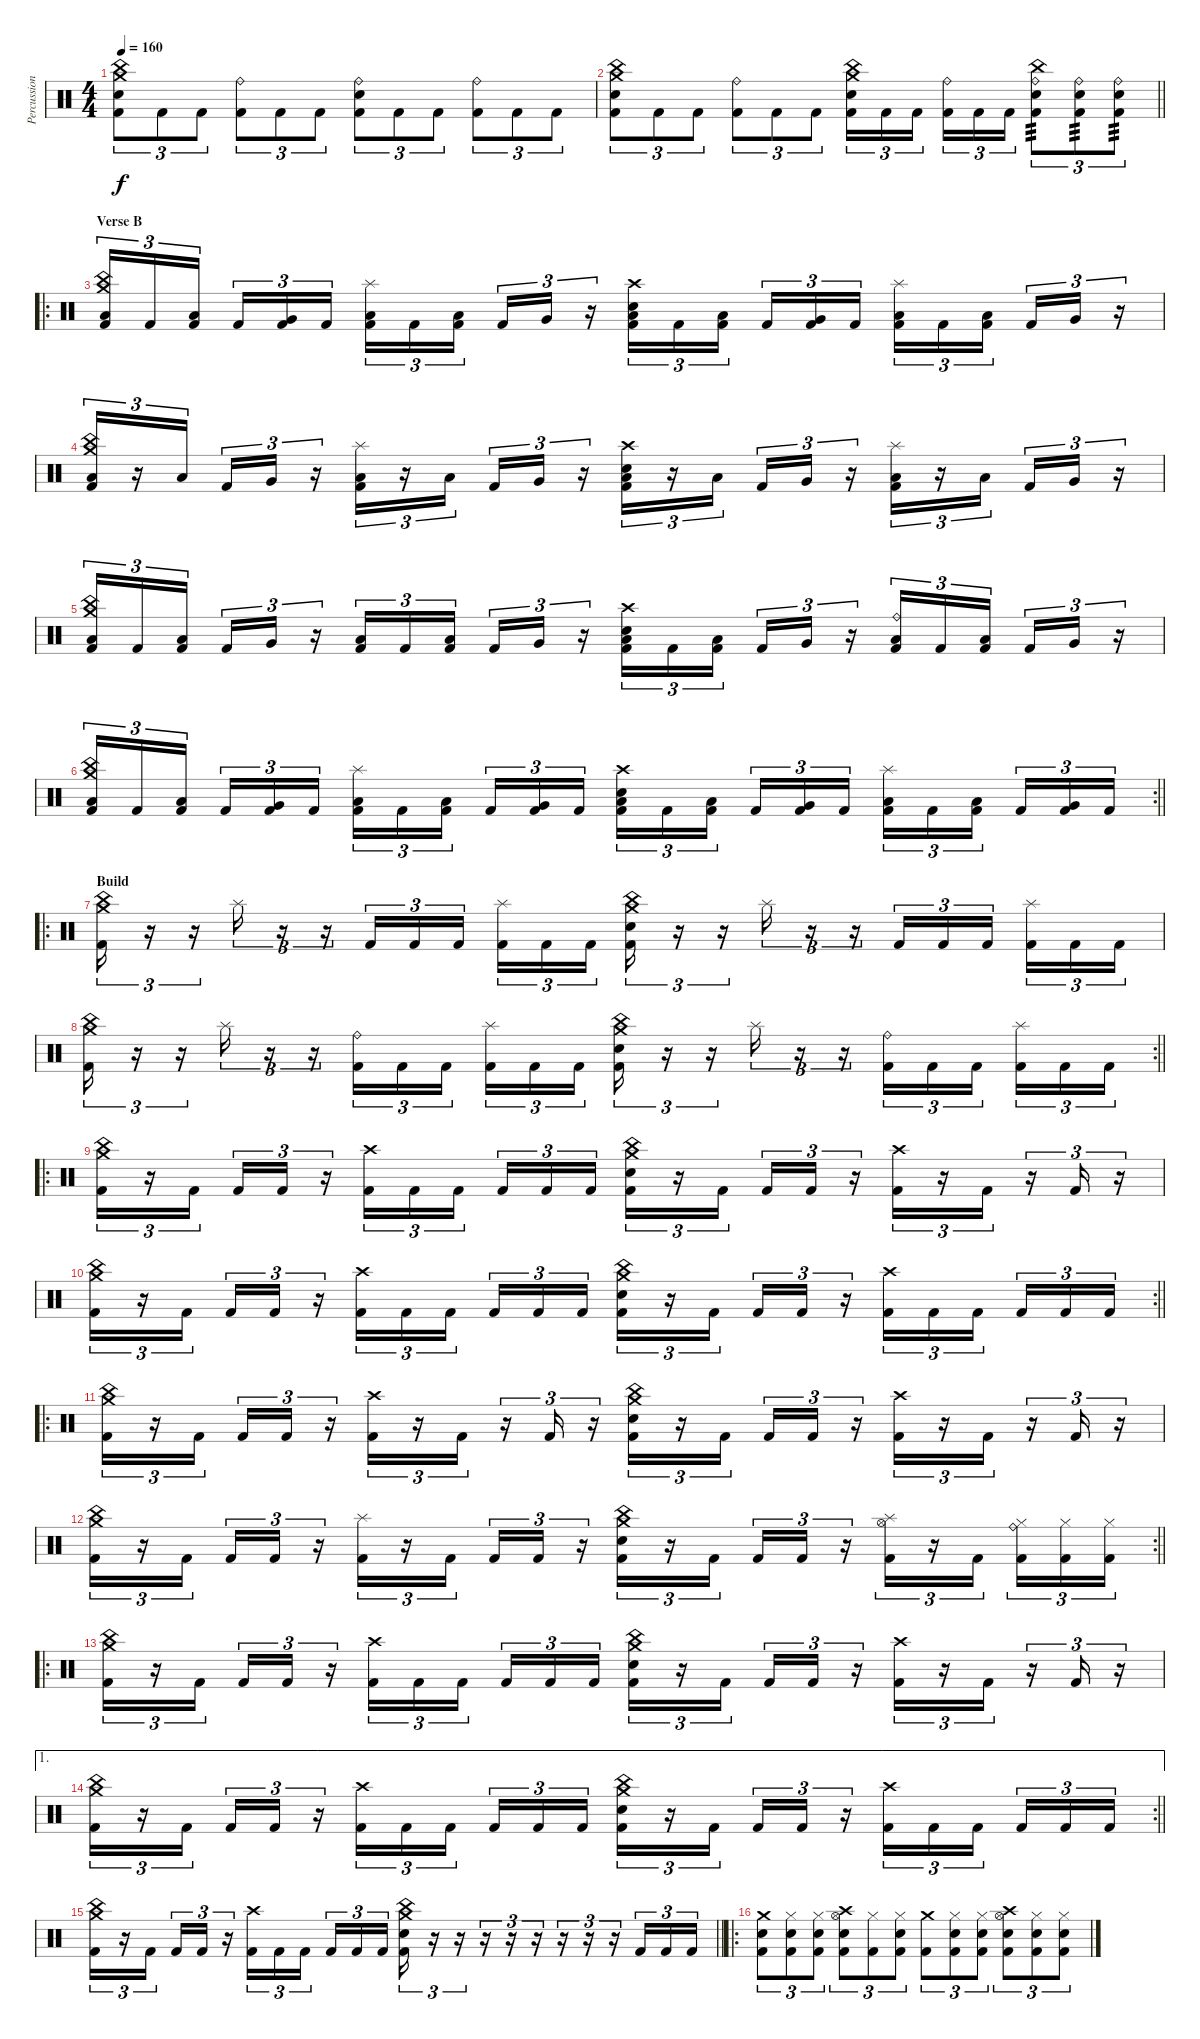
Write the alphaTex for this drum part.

\track ("Percussion" "Percussion") {instrument percussion}
\staff {score}
\articulation defaults
\ts (4 4)
\tempo 160
\clef neutral
\ks c
("Electric Snare (hit)" "Kick (hit) 2" "Crash medium (hit)" "China (hit)").8{tu (3 2) dy f} "Kick (hit) 2".8{tu (3 2)} "Kick (hit) 2".8{tu (3 2)} ("Kick (hit) 2" "Ride (bell)").8{tu (3 2)} "Kick (hit) 2".8{tu (3 2)} "Kick (hit) 2".8{tu (3 2)} ("Electric Snare (hit)" "Kick (hit) 2" "Ride (bell)").8{tu (3 2)} "Kick (hit) 2".8{tu (3 2)} "Kick (hit) 2".8{tu (3 2)} ("Kick (hit) 2" "Ride (bell)").8{tu (3 2)} "Kick (hit) 2".8{tu (3 2)} "Kick (hit) 2".8{tu (3 2)} |
\barLineRight lightlight
("Electric Snare (hit)" "Kick (hit) 2" "Crash medium (hit)" "China (hit)").8{tu (3 2)} "Kick (hit) 2".8{tu (3 2)} "Kick (hit) 2".8{tu (3 2)} ("Kick (hit) 2" "Ride (bell)").8{tu (3 2)} "Kick (hit) 2".8{tu (3 2)} "Kick (hit) 2".8{tu (3 2)} ("Electric Snare (hit)" "Kick (hit) 2" "Crash medium (hit)" "China (hit)").16{tu (3 2)} "Kick (hit) 2".16{tu (3 2)} "Kick (hit) 2".16{tu (3 2) beam splitsecondary} ("Kick (hit) 2" "Ride (bell)").16{tu (3 2)} "Kick (hit) 2".16{tu (3 2)} "Kick (hit) 2".16{tu (3 2)} ("Electric Snare (hit)" "Kick (hit) 2" "China (hit)" "Ride (bell)").8{tu (3 2) tp 3} ("Electric Snare (hit)" "Kick (hit) 2" "Ride (bell)").8{tu (3 2) tp 3} ("Electric Snare (hit)" "Kick (hit) 2" "Ride (bell)").8{tu (3 2) tp 3} |
\ro
\section ("" "Verse B")
("Kick (hit) 2" "Low Floor Tom (hit)" "Crash medium (hit)" "China (hit)").16{tu (3 2)} "Kick (hit) 2".16{tu (3 2)} ("Kick (hit) 2" "Low Tom (hit)").16{tu (3 2) beam splitsecondary} "Kick (hit) 2".16{tu (3 2)} ("Kick (hit) 2" "Very Low Tom (hit)").16{tu (3 2)} "Kick (hit) 2".16{tu (3 2)} ("Kick (hit) 2" "Low Floor Tom (hit)" "Splash (hit)").16{tu (3 2)} "Kick (hit) 2".16{tu (3 2)} ("Kick (hit) 2" "Low Tom (hit)").16{tu (3 2) beam splitsecondary} "Kick (hit) 2".16{tu (3 2)} "Very Low Tom (hit)".16{tu (3 2)} r.16{tu (3 2)} ("Kick (hit) 2" "Low Floor Tom (hit)" "Electric Snare (hit)" "Crash high (hit)").16{tu (3 2)} "Kick (hit) 2".16{tu (3 2)} ("Kick (hit) 2" "Low Tom (hit)").16{tu (3 2) beam splitsecondary} "Kick (hit) 2".16{tu (3 2)} ("Kick (hit) 2" "Very Low Tom (hit)").16{tu (3 2)} "Kick (hit) 2".16{tu (3 2)} ("Kick (hit) 2" "Low Floor Tom (hit)" "Splash (hit)").16{tu (3 2)} "Kick (hit) 2".16{tu (3 2)} ("Kick (hit) 2" "Low Tom (hit)").16{tu (3 2) beam splitsecondary} "Kick (hit) 2".16{tu (3 2)} "Very Low Tom (hit)".16{tu (3 2)} r.16{tu (3 2)} |
("Kick (hit) 2" "Low Floor Tom (hit)" "Crash medium (hit)" "China (hit)").16{tu (3 2)} r.16{tu (3 2)} "Low Tom (hit)".16{tu (3 2) beam splitsecondary} "Kick (hit) 2".16{tu (3 2)} "Very Low Tom (hit)".16{tu (3 2)} r.16{tu (3 2)} ("Kick (hit) 2" "Low Floor Tom (hit)" "Splash (hit)").16{tu (3 2)} r.16{tu (3 2)} "Low Tom (hit)".16{tu (3 2) beam splitsecondary} "Kick (hit) 2".16{tu (3 2)} "Very Low Tom (hit)".16{tu (3 2)} r.16{tu (3 2)} ("Kick (hit) 2" "Low Floor Tom (hit)" "Electric Snare (hit)" "Crash high (hit)").16{tu (3 2)} r.16{tu (3 2)} "Low Tom (hit)".16{tu (3 2) beam splitsecondary} "Kick (hit) 2".16{tu (3 2)} "Very Low Tom (hit)".16{tu (3 2)} r.16{tu (3 2)} ("Kick (hit) 2" "Low Floor Tom (hit)" "Splash (hit)").16{tu (3 2)} r.16{tu (3 2)} "Low Tom (hit)".16{tu (3 2) beam splitsecondary} "Kick (hit) 2".16{tu (3 2)} "Very Low Tom (hit)".16{tu (3 2)} r.16{tu (3 2)} |
("Kick (hit) 2" "Low Floor Tom (hit)" "Crash medium (hit)" "China (hit)").16{tu (3 2)} "Kick (hit) 2".16{tu (3 2)} ("Kick (hit) 2" "Low Tom (hit)").16{tu (3 2) beam splitsecondary} "Kick (hit) 2".16{tu (3 2)} "Very Low Tom (hit)".16{tu (3 2)} r.16{tu (3 2)} ("Kick (hit) 2" "Low Floor Tom (hit)").16{tu (3 2)} "Kick (hit) 2".16{tu (3 2)} ("Kick (hit) 2" "Low Tom (hit)").16{tu (3 2) beam splitsecondary} "Kick (hit) 2".16{tu (3 2)} "Very Low Tom (hit)".16{tu (3 2)} r.16{tu (3 2)} ("Kick (hit) 2" "Low Floor Tom (hit)" "Electric Snare (hit)" "Crash high (hit)").16{tu (3 2)} "Kick (hit) 2".16{tu (3 2)} ("Kick (hit) 2" "Low Tom (hit)").16{tu (3 2) beam splitsecondary} "Kick (hit) 2".16{tu (3 2)} "Very Low Tom (hit)".16{tu (3 2)} r.16{tu (3 2)} ("Kick (hit) 2" "Low Floor Tom (hit)" "Ride (bell)").16{tu (3 2)} "Kick (hit) 2".16{tu (3 2)} ("Kick (hit) 2" "Low Tom (hit)").16{tu (3 2) beam splitsecondary} "Kick (hit) 2".16{tu (3 2)} "Very Low Tom (hit)".16{tu (3 2)} r.16{tu (3 2)} |
\rc 2
\barLineRight lightlight
("Kick (hit) 2" "Low Floor Tom (hit)" "Crash medium (hit)" "China (hit)").16{tu (3 2)} "Kick (hit) 2".16{tu (3 2)} ("Kick (hit) 2" "Low Tom (hit)").16{tu (3 2) beam splitsecondary} "Kick (hit) 2".16{tu (3 2)} ("Kick (hit) 2" "Very Low Tom (hit)").16{tu (3 2)} "Kick (hit) 2".16{tu (3 2)} ("Kick (hit) 2" "Low Floor Tom (hit)" "Splash (hit)").16{tu (3 2)} "Kick (hit) 2".16{tu (3 2)} ("Kick (hit) 2" "Low Tom (hit)").16{tu (3 2) beam splitsecondary} "Kick (hit) 2".16{tu (3 2)} ("Kick (hit) 2" "Very Low Tom (hit)").16{tu (3 2)} "Kick (hit) 2".16{tu (3 2)} ("Kick (hit) 2" "Low Floor Tom (hit)" "Electric Snare (hit)" "Crash high (hit)").16{tu (3 2)} "Kick (hit) 2".16{tu (3 2)} ("Kick (hit) 2" "Low Tom (hit)").16{tu (3 2) beam splitsecondary} "Kick (hit) 2".16{tu (3 2)} ("Kick (hit) 2" "Very Low Tom (hit)").16{tu (3 2)} "Kick (hit) 2".16{tu (3 2)} ("Kick (hit) 2" "Low Floor Tom (hit)" "Splash (hit)").16{tu (3 2)} "Kick (hit) 2".16{tu (3 2)} ("Kick (hit) 2" "Low Tom (hit)").16{tu (3 2) beam splitsecondary} "Kick (hit) 2".16{tu (3 2)} ("Kick (hit) 2" "Very Low Tom (hit)").16{tu (3 2)} "Kick (hit) 2".16{tu (3 2)} |
\ro
\section ("" "Build")
("Kick (hit) 2" "Crash medium (hit)" "China (hit)").16{tu (3 2)} r.16{tu (3 2)} r.16{tu (3 2)} "Splash (hit)".16{tu (3 2)} r.16{tu (3 2)} r.16{tu (3 2)} "Kick (hit) 2".16{tu (3 2)} "Kick (hit) 2".16{tu (3 2)} "Kick (hit) 2".16{tu (3 2) beam splitsecondary} ("Kick (hit) 2" "Splash (hit)").16{tu (3 2)} "Kick (hit) 2".16{tu (3 2)} "Kick (hit) 2".16{tu (3 2)} ("Kick (hit) 2" "Electric Snare (hit)" "Crash medium (hit)" "China (hit)").16{tu (3 2)} r.16{tu (3 2)} r.16{tu (3 2)} "Splash (hit)".16{tu (3 2)} r.16{tu (3 2)} r.16{tu (3 2)} "Kick (hit) 2".16{tu (3 2)} "Kick (hit) 2".16{tu (3 2)} "Kick (hit) 2".16{tu (3 2) beam splitsecondary} ("Kick (hit) 2" "Splash (hit)").16{tu (3 2)} "Kick (hit) 2".16{tu (3 2)} "Kick (hit) 2".16{tu (3 2)} |
\rc 2
\barLineRight lightlight
("Kick (hit) 2" "Crash medium (hit)" "China (hit)").16{tu (3 2)} r.16{tu (3 2)} r.16{tu (3 2)} "Splash (hit)".16{tu (3 2)} r.16{tu (3 2)} r.16{tu (3 2)} ("Kick (hit) 2" "Ride (bell)").16{tu (3 2)} "Kick (hit) 2".16{tu (3 2)} "Kick (hit) 2".16{tu (3 2) beam splitsecondary} ("Kick (hit) 2" "Splash (hit)").16{tu (3 2)} "Kick (hit) 2".16{tu (3 2)} "Kick (hit) 2".16{tu (3 2)} ("Kick (hit) 2" "Electric Snare (hit)" "Crash medium (hit)" "China (hit)").16{tu (3 2)} r.16{tu (3 2)} r.16{tu (3 2)} "Splash (hit)".16{tu (3 2)} r.16{tu (3 2)} r.16{tu (3 2)} ("Kick (hit) 2" "Ride (bell)").16{tu (3 2)} "Kick (hit) 2".16{tu (3 2)} "Kick (hit) 2".16{tu (3 2) beam splitsecondary} ("Kick (hit) 2" "Splash (hit)").16{tu (3 2)} "Kick (hit) 2".16{tu (3 2)} "Kick (hit) 2".16{tu (3 2)} |
\ro
\section ("" "")
("Kick (hit) 2" "Crash medium (hit)" "China (hit)").16{tu (3 2)} r.16{tu (3 2)} "Kick (hit) 2".16{tu (3 2) beam splitsecondary} "Kick (hit) 2".16{tu (3 2)} "Kick (hit) 2".16{tu (3 2)} r.16{tu (3 2)} ("Kick (hit) 2" "Crash high (hit)").16{tu (3 2)} "Kick (hit) 2".16{tu (3 2)} "Kick (hit) 2".16{tu (3 2) beam splitsecondary} "Kick (hit) 2".16{tu (3 2)} "Kick (hit) 2".16{tu (3 2)} "Kick (hit) 2".16{tu (3 2)} ("Kick (hit) 2" "Electric Snare (hit)" "Crash medium (hit)" "China (hit)").16{tu (3 2)} r.16{tu (3 2)} "Kick (hit) 2".16{tu (3 2) beam splitsecondary} "Kick (hit) 2".16{tu (3 2)} "Kick (hit) 2".16{tu (3 2)} r.16{tu (3 2)} ("Kick (hit) 2" "Crash high (hit)").16{tu (3 2)} r.16{tu (3 2)} "Kick (hit) 2".16{tu (3 2)} r.16{tu (3 2)} "Kick (hit) 2".16{tu (3 2)} r.16{tu (3 2)} |
\rc 2
\barLineRight lightlight
("Kick (hit) 2" "Crash medium (hit)" "China (hit)").16{tu (3 2)} r.16{tu (3 2)} "Kick (hit) 2".16{tu (3 2) beam splitsecondary} "Kick (hit) 2".16{tu (3 2)} "Kick (hit) 2".16{tu (3 2)} r.16{tu (3 2)} ("Kick (hit) 2" "Crash high (hit)").16{tu (3 2)} "Kick (hit) 2".16{tu (3 2)} "Kick (hit) 2".16{tu (3 2) beam splitsecondary} "Kick (hit) 2".16{tu (3 2)} "Kick (hit) 2".16{tu (3 2)} "Kick (hit) 2".16{tu (3 2)} ("Kick (hit) 2" "Electric Snare (hit)" "Crash medium (hit)" "China (hit)").16{tu (3 2)} r.16{tu (3 2)} "Kick (hit) 2".16{tu (3 2) beam splitsecondary} "Kick (hit) 2".16{tu (3 2)} "Kick (hit) 2".16{tu (3 2)} r.16{tu (3 2)} ("Kick (hit) 2" "Crash high (hit)").16{tu (3 2)} "Kick (hit) 2".16{tu (3 2)} "Kick (hit) 2".16{tu (3 2) beam splitsecondary} "Kick (hit) 2".16{tu (3 2)} "Kick (hit) 2".16{tu (3 2)} "Kick (hit) 2".16{tu (3 2)} |
\ro
\section ("" "")
("Kick (hit) 2" "Crash medium (hit)" "China (hit)").16{tu (3 2)} r.16{tu (3 2)} "Kick (hit) 2".16{tu (3 2) beam splitsecondary} "Kick (hit) 2".16{tu (3 2)} "Kick (hit) 2".16{tu (3 2)} r.16{tu (3 2)} ("Kick (hit) 2" "Crash high (hit)").16{tu (3 2)} r.16{tu (3 2)} "Kick (hit) 2".16{tu (3 2)} r.16{tu (3 2)} "Kick (hit) 2".16{tu (3 2)} r.16{tu (3 2)} ("Kick (hit) 2" "Electric Snare (hit)" "Crash medium (hit)" "China (hit)").16{tu (3 2)} r.16{tu (3 2)} "Kick (hit) 2".16{tu (3 2) beam splitsecondary} "Kick (hit) 2".16{tu (3 2)} "Kick (hit) 2".16{tu (3 2)} r.16{tu (3 2)} ("Kick (hit) 2" "Crash high (hit)").16{tu (3 2)} r.16{tu (3 2)} "Kick (hit) 2".16{tu (3 2)} r.16{tu (3 2)} "Kick (hit) 2".16{tu (3 2)} r.16{tu (3 2)} |
\rc 2
\barLineRight lightlight
("Kick (hit) 2" "Crash medium (hit)" "China (hit)").16{tu (3 2)} r.16{tu (3 2)} "Kick (hit) 2".16{tu (3 2) beam splitsecondary} "Kick (hit) 2".16{tu (3 2)} "Kick (hit) 2".16{tu (3 2)} r.16{tu (3 2)} ("Kick (hit) 2" "Splash (hit)").16{tu (3 2)} r.16{tu (3 2)} "Kick (hit) 2".16{tu (3 2) beam splitsecondary} "Kick (hit) 2".16{tu (3 2)} "Kick (hit) 2".16{tu (3 2)} r.16{tu (3 2)} ("Kick (hit) 2" "Electric Snare (hit)" "Crash medium (hit)" "China (hit)").16{tu (3 2)} r.16{tu (3 2)} "Kick (hit) 2".16{tu (3 2) beam splitsecondary} "Kick (hit) 2".16{tu (3 2)} "Kick (hit) 2".16{tu (3 2)} r.16{tu (3 2)} ("Kick (hit) 2" "Hi-Hat (open)" "Splash (hit)").16{tu (3 2)} r.16{tu (3 2)} "Kick (hit) 2".16{tu (3 2) beam splitsecondary} ("Kick (hit) 2" "Hi-Hat (closed)" "Ride (bell)").16{tu (3 2)} ("Kick (hit) 2" "Hi-Hat (closed)").16{tu (3 2)} ("Kick (hit) 2" "Hi-Hat (closed)").16{tu (3 2)} |
\ro
\section ("" "")
("Kick (hit) 2" "Crash medium (hit)" "China (hit)").16{tu (3 2)} r.16{tu (3 2)} "Kick (hit) 2".16{tu (3 2) beam splitsecondary} "Kick (hit) 2".16{tu (3 2)} "Kick (hit) 2".16{tu (3 2)} r.16{tu (3 2)} ("Kick (hit) 2" "Crash high (hit)").16{tu (3 2)} "Kick (hit) 2".16{tu (3 2)} "Kick (hit) 2".16{tu (3 2) beam splitsecondary} "Kick (hit) 2".16{tu (3 2)} "Kick (hit) 2".16{tu (3 2)} "Kick (hit) 2".16{tu (3 2)} ("Kick (hit) 2" "Electric Snare (hit)" "Crash medium (hit)" "China (hit)").16{tu (3 2)} r.16{tu (3 2)} "Kick (hit) 2".16{tu (3 2) beam splitsecondary} "Kick (hit) 2".16{tu (3 2)} "Kick (hit) 2".16{tu (3 2)} r.16{tu (3 2)} ("Kick (hit) 2" "Crash high (hit)").16{tu (3 2)} r.16{tu (3 2)} "Kick (hit) 2".16{tu (3 2)} r.16{tu (3 2)} "Kick (hit) 2".16{tu (3 2)} r.16{tu (3 2)} |
\ae 1
\rc 2
\barLineRight lightlight
("Kick (hit) 2" "Crash medium (hit)" "China (hit)").16{tu (3 2)} r.16{tu (3 2)} "Kick (hit) 2".16{tu (3 2) beam splitsecondary} "Kick (hit) 2".16{tu (3 2)} "Kick (hit) 2".16{tu (3 2)} r.16{tu (3 2)} ("Kick (hit) 2" "Crash high (hit)").16{tu (3 2)} "Kick (hit) 2".16{tu (3 2)} "Kick (hit) 2".16{tu (3 2) beam splitsecondary} "Kick (hit) 2".16{tu (3 2)} "Kick (hit) 2".16{tu (3 2)} "Kick (hit) 2".16{tu (3 2)} ("Kick (hit) 2" "Electric Snare (hit)" "Crash medium (hit)" "China (hit)").16{tu (3 2)} r.16{tu (3 2)} "Kick (hit) 2".16{tu (3 2) beam splitsecondary} "Kick (hit) 2".16{tu (3 2)} "Kick (hit) 2".16{tu (3 2)} r.16{tu (3 2)} ("Kick (hit) 2" "Crash high (hit)").16{tu (3 2)} "Kick (hit) 2".16{tu (3 2)} "Kick (hit) 2".16{tu (3 2) beam splitsecondary} "Kick (hit) 2".16{tu (3 2)} "Kick (hit) 2".16{tu (3 2)} "Kick (hit) 2".16{tu (3 2)} |
\barLineRight lightlight
("Kick (hit) 2" "Crash medium (hit)" "China (hit)").16{tu (3 2)} r.16{tu (3 2)} "Kick (hit) 2".16{tu (3 2) beam splitsecondary} "Kick (hit) 2".16{tu (3 2)} "Kick (hit) 2".16{tu (3 2)} r.16{tu (3 2)} ("Kick (hit) 2" "Crash high (hit)").16{tu (3 2)} "Kick (hit) 2".16{tu (3 2)} "Kick (hit) 2".16{tu (3 2) beam splitsecondary} "Kick (hit) 2".16{tu (3 2)} "Kick (hit) 2".16{tu (3 2)} "Kick (hit) 2".16{tu (3 2)} ("Kick (hit) 2" "Electric Snare (hit)" "Crash medium (hit)" "China (hit)").16{tu (3 2)} r.16{tu (3 2)} r.16{tu (3 2)} r.16{tu (3 2)} r.16{tu (3 2)} r.16{tu (3 2)} r.16{tu (3 2)} r.16{tu (3 2)} r.16{tu (3 2)} "Kick (hit) 2".16{tu (3 2)} "Kick (hit) 2".16{tu (3 2)} "Kick (hit) 2".16{tu (3 2)} |
\ro
\section ("" "")
("Kick (hit) 2" "Crash medium (hit)" "Electric Snare (hit)").8{tu (3 2)} ("Kick (hit) 2" "Hi-Hat (closed)" "Electric Snare (hit)").8{tu (3 2)} ("Kick (hit) 2" "Hi-Hat (closed)" "Electric Snare (hit)").8{tu (3 2)} ("Kick (hit) 2" "Crash high (hit)" "Hi-Hat (open)" "Electric Snare (hit)").8{tu (3 2)} ("Kick (hit) 2" "Hi-Hat (closed)").8{tu (3 2)} ("Kick (hit) 2" "Hi-Hat (closed)" "Electric Snare (hit)").8{tu (3 2)} ("Kick (hit) 2" "Crash medium (hit)").8{tu (3 2)} ("Kick (hit) 2" "Hi-Hat (closed)" "Electric Snare (hit)").8{tu (3 2)} ("Kick (hit) 2" "Hi-Hat (closed)" "Electric Snare (hit)").8{tu (3 2)} ("Kick (hit) 2" "Crash high (hit)" "Hi-Hat (open)" "Electric Snare (hit)").8{tu (3 2)} ("Kick (hit) 2" "Hi-Hat (closed)" "Electric Snare (hit)").8{tu (3 2)} ("Kick (hit) 2" "Hi-Hat (closed)" "Electric Snare (hit)").8{tu (3 2)}
